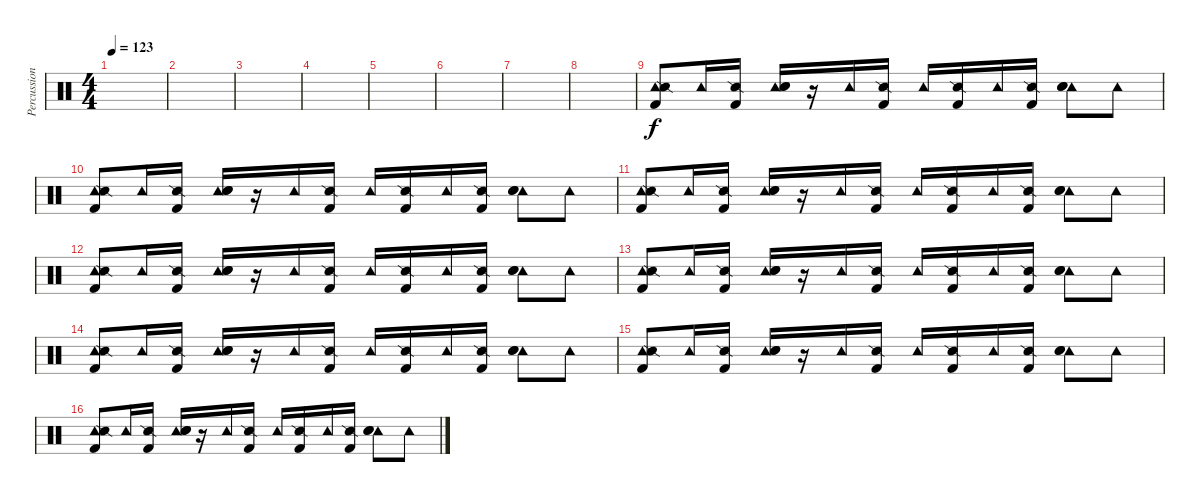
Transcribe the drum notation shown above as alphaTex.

\track ("Percussion" "Percussion") {instrument percussion}
\staff {score}
\articulation defaults
\ts (4 4)
\tempo 123
\clef neutral
\ks c
|
|
|
|
|
|
|
|
("Tambourine (hit)" "Snare (side stick) 2" "Kick (hit) 2").8 "Tambourine (hit)".16 ("Snare (side stick) 2" "Kick (hit) 2").16 ("Tambourine (hit)" "Electric Snare (hit)" "Snare (hit) 2").16 r.16 "Tambourine (hit)".16 ("Snare (side stick) 2" "Kick (hit) 2").16 "Tambourine (hit)".16 ("Snare (side stick) 2" "Kick (hit) 2").16 "Tambourine (hit)".16 ("Snare (side stick) 2" "Kick (hit) 2").16 ("Tambourine (hit)" "Electric Snare (hit)" "Snare (hit) 2").8 "Tambourine (hit)".8 |
("Tambourine (hit)" "Snare (side stick) 2" "Kick (hit) 2").8 "Tambourine (hit)".16 ("Snare (side stick) 2" "Kick (hit) 2").16 ("Tambourine (hit)" "Electric Snare (hit)" "Snare (hit) 2").16 r.16 "Tambourine (hit)".16 ("Snare (side stick) 2" "Kick (hit) 2").16 "Tambourine (hit)".16 ("Snare (side stick) 2" "Kick (hit) 2").16 "Tambourine (hit)".16 ("Snare (side stick) 2" "Kick (hit) 2").16 ("Tambourine (hit)" "Electric Snare (hit)" "Snare (hit) 2").8 "Tambourine (hit)".8 |
("Tambourine (hit)" "Snare (side stick) 2" "Kick (hit) 2").8 "Tambourine (hit)".16 ("Snare (side stick) 2" "Kick (hit) 2").16 ("Tambourine (hit)" "Electric Snare (hit)" "Snare (hit) 2").16 r.16 "Tambourine (hit)".16 ("Snare (side stick) 2" "Kick (hit) 2").16 "Tambourine (hit)".16 ("Snare (side stick) 2" "Kick (hit) 2").16 "Tambourine (hit)".16 ("Snare (side stick) 2" "Kick (hit) 2").16 ("Tambourine (hit)" "Electric Snare (hit)" "Snare (hit) 2").8 "Tambourine (hit)".8 |
("Tambourine (hit)" "Snare (side stick) 2" "Kick (hit) 2").8 "Tambourine (hit)".16 ("Snare (side stick) 2" "Kick (hit) 2").16 ("Tambourine (hit)" "Electric Snare (hit)" "Snare (hit) 2").16 r.16 "Tambourine (hit)".16 ("Snare (side stick) 2" "Kick (hit) 2").16 "Tambourine (hit)".16 ("Snare (side stick) 2" "Kick (hit) 2").16 "Tambourine (hit)".16 ("Snare (side stick) 2" "Kick (hit) 2").16 ("Tambourine (hit)" "Electric Snare (hit)" "Snare (hit) 2").8 "Tambourine (hit)".8 |
("Tambourine (hit)" "Snare (side stick) 2" "Kick (hit) 2").8 "Tambourine (hit)".16 ("Snare (side stick) 2" "Kick (hit) 2").16 ("Tambourine (hit)" "Electric Snare (hit)" "Snare (hit) 2").16 r.16 "Tambourine (hit)".16 ("Snare (side stick) 2" "Kick (hit) 2").16 "Tambourine (hit)".16 ("Snare (side stick) 2" "Kick (hit) 2").16 "Tambourine (hit)".16 ("Snare (side stick) 2" "Kick (hit) 2").16 ("Tambourine (hit)" "Electric Snare (hit)" "Snare (hit) 2").8 "Tambourine (hit)".8 |
("Tambourine (hit)" "Snare (side stick) 2" "Kick (hit) 2").8 "Tambourine (hit)".16 ("Snare (side stick) 2" "Kick (hit) 2").16 ("Tambourine (hit)" "Electric Snare (hit)" "Snare (hit) 2").16 r.16 "Tambourine (hit)".16 ("Snare (side stick) 2" "Kick (hit) 2").16 "Tambourine (hit)".16 ("Snare (side stick) 2" "Kick (hit) 2").16 "Tambourine (hit)".16 ("Snare (side stick) 2" "Kick (hit) 2").16 ("Tambourine (hit)" "Electric Snare (hit)" "Snare (hit) 2").8 "Tambourine (hit)".8 |
("Tambourine (hit)" "Snare (side stick) 2" "Kick (hit) 2").8 "Tambourine (hit)".16 ("Snare (side stick) 2" "Kick (hit) 2").16 ("Tambourine (hit)" "Electric Snare (hit)" "Snare (hit) 2").16 r.16 "Tambourine (hit)".16 ("Snare (side stick) 2" "Kick (hit) 2").16 "Tambourine (hit)".16 ("Snare (side stick) 2" "Kick (hit) 2").16 "Tambourine (hit)".16 ("Snare (side stick) 2" "Kick (hit) 2").16 ("Tambourine (hit)" "Electric Snare (hit)" "Snare (hit) 2").8 "Tambourine (hit)".8 |
("Tambourine (hit)" "Snare (side stick) 2" "Kick (hit) 2").8 "Tambourine (hit)".16 ("Snare (side stick) 2" "Kick (hit) 2").16 ("Tambourine (hit)" "Electric Snare (hit)" "Snare (hit) 2").16 r.16 "Tambourine (hit)".16 ("Snare (side stick) 2" "Kick (hit) 2").16 "Tambourine (hit)".16 ("Snare (side stick) 2" "Kick (hit) 2").16 "Tambourine (hit)".16 ("Snare (side stick) 2" "Kick (hit) 2").16 ("Tambourine (hit)" "Electric Snare (hit)" "Snare (hit) 2").8 "Tambourine (hit)".8
